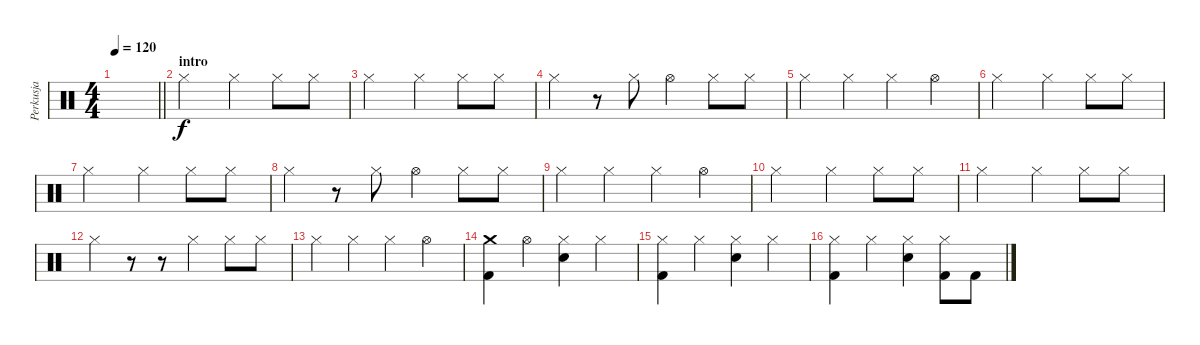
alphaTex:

\track ("Perkusja" "Perkusja") {instrument percussion}
\staff {score}
\articulation defaults
\ts (4 4)
\tempo 120
\clef neutral
\barLineRight lightlight
\ks c
|
\section ("" "intro")
"Hi-Hat (closed)".2 "Hi-Hat (closed)".4 "Hi-Hat (closed)".8 "Hi-Hat (closed)".8 |
"Hi-Hat (closed)".2 "Hi-Hat (closed)".4 "Hi-Hat (closed)".8 "Hi-Hat (closed)".8 |
"Hi-Hat (closed)".4 r.8 "Hi-Hat (closed)".8 "Hi-Hat (open)".4 "Hi-Hat (closed)".8 "Hi-Hat (closed)".8 |
"Hi-Hat (closed)".4 "Hi-Hat (closed)".4 "Hi-Hat (closed)".4 "Hi-Hat (open)".4 |
"Hi-Hat (closed)".2 "Hi-Hat (closed)".4 "Hi-Hat (closed)".8 "Hi-Hat (closed)".8 |
"Hi-Hat (closed)".2 "Hi-Hat (closed)".4 "Hi-Hat (closed)".8 "Hi-Hat (closed)".8 |
"Hi-Hat (closed)".4 r.8 "Hi-Hat (closed)".8 "Hi-Hat (open)".4 "Hi-Hat (closed)".8 "Hi-Hat (closed)".8 |
"Hi-Hat (closed)".4 "Hi-Hat (closed)".4 "Hi-Hat (closed)".4 "Hi-Hat (open)".4 |
"Hi-Hat (closed)".2 "Hi-Hat (closed)".4 "Hi-Hat (closed)".8 "Hi-Hat (closed)".8 |
"Hi-Hat (closed)".2 "Hi-Hat (closed)".4 "Hi-Hat (closed)".8 "Hi-Hat (closed)".8 |
"Hi-Hat (closed)".4 r.8 r.8 "Hi-Hat (closed)".4 "Hi-Hat (closed)".8 "Hi-Hat (closed)".8 |
"Hi-Hat (closed)".4 "Hi-Hat (closed)".4 "Hi-Hat (closed)".4 "Hi-Hat (open)".4 |
("Crash medium (hit)" "Kick (hit) 2").4 "Hi-Hat (open)".4 ("Hi-Hat (closed)" "Snare (hit) 2").4 "Hi-Hat (closed)".4 |
("Hi-Hat (closed)" "Kick (hit) 2").4 "Hi-Hat (closed)".4 ("Hi-Hat (closed)" "Snare (hit) 2").4 "Hi-Hat (closed)".4 |
("Hi-Hat (closed)" "Kick (hit) 2").4 "Hi-Hat (closed)".4 ("Hi-Hat (closed)" "Snare (hit) 2").4 ("Hi-Hat (closed)" "Kick (hit) 2").8 "Kick (hit) 2".8
